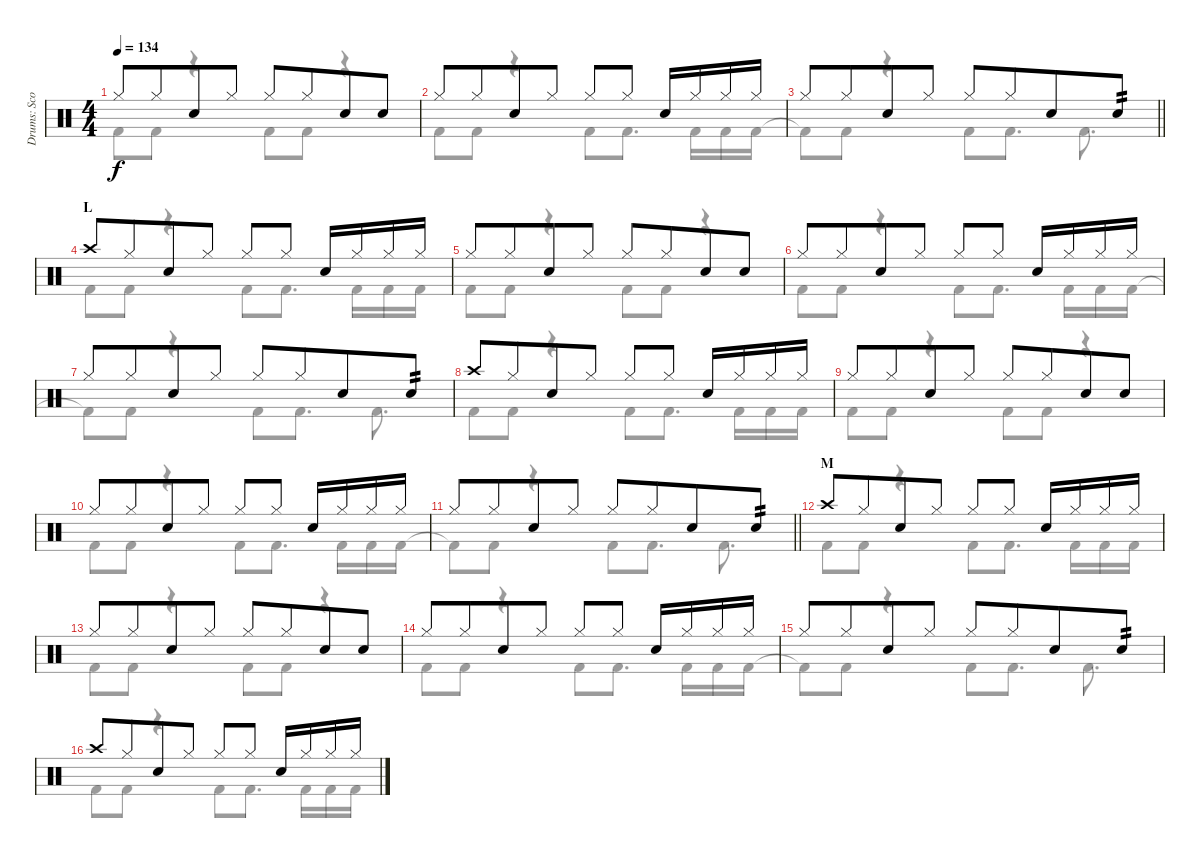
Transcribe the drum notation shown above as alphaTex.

\track ("Drums: Scott" "Drums: Sco") {instrument percussion}
\staff {score}
\articulation defaults
\voice
\ts (4 4)
\tempo 134
\clef neutral
\ks c "Hi-Hat (closed)".8{dy f} "Hi-Hat (closed)".8{beam merge} "Snare (hit) 2".8 "Hi-Hat (closed)".8 "Hi-Hat (closed)".8 "Hi-Hat (closed)".8{beam merge} "Snare (hit) 2".8 "Snare (hit) 2".8
|
"Hi-Hat (closed)".8 "Hi-Hat (closed)".8{beam merge} "Snare (hit) 2".8 "Hi-Hat (closed)".8 "Hi-Hat (closed)".8 "Hi-Hat (closed)".8 "Snare (hit) 2".16 "Hi-Hat (closed)".16 "Hi-Hat (closed)".16 "Hi-Hat (closed)".16 |
\barLineRight lightlight "Hi-Hat (closed)".8 "Hi-Hat (closed)".8{beam merge} "Snare (hit) 2".8 "Hi-Hat (closed)".8 "Hi-Hat (closed)".8 "Hi-Hat (closed)".8{beam merge} "Snare (hit) 2".8 "Snare (hit) 2".8{tp 2}
|
\section ("" "L")
"Crash high (hit)".8 "Hi-Hat (closed)".8{beam merge} "Snare (hit) 2".8 "Hi-Hat (closed)".8 "Hi-Hat (closed)".8 "Hi-Hat (closed)".8 "Snare (hit) 2".16 "Hi-Hat (closed)".16 "Hi-Hat (closed)".16 "Hi-Hat (closed)".16 |
"Hi-Hat (closed)".8 "Hi-Hat (closed)".8{beam merge} "Snare (hit) 2".8 "Hi-Hat (closed)".8 "Hi-Hat (closed)".8 "Hi-Hat (closed)".8{beam merge} "Snare (hit) 2".8 "Snare (hit) 2".8 |
"Hi-Hat (closed)".8 "Hi-Hat (closed)".8{beam merge} "Snare (hit) 2".8 "Hi-Hat (closed)".8 "Hi-Hat (closed)".8 "Hi-Hat (closed)".8 "Snare (hit) 2".16 "Hi-Hat (closed)".16 "Hi-Hat (closed)".16 "Hi-Hat (closed)".16 |
"Hi-Hat (closed)".8 "Hi-Hat (closed)".8{beam merge} "Snare (hit) 2".8 "Hi-Hat (closed)".8 "Hi-Hat (closed)".8 "Hi-Hat (closed)".8{beam merge} "Snare (hit) 2".8 "Snare (hit) 2".8{tp 2} |
"Crash high (hit)".8 "Hi-Hat (closed)".8{beam merge} "Snare (hit) 2".8 "Hi-Hat (closed)".8 "Hi-Hat (closed)".8 "Hi-Hat (closed)".8 "Snare (hit) 2".16 "Hi-Hat (closed)".16 "Hi-Hat (closed)".16 "Hi-Hat (closed)".16 |
"Hi-Hat (closed)".8 "Hi-Hat (closed)".8{beam merge} "Snare (hit) 2".8 "Hi-Hat (closed)".8 "Hi-Hat (closed)".8 "Hi-Hat (closed)".8{beam merge} "Snare (hit) 2".8 "Snare (hit) 2".8 |
"Hi-Hat (closed)".8 "Hi-Hat (closed)".8{beam merge} "Snare (hit) 2".8 "Hi-Hat (closed)".8 "Hi-Hat (closed)".8 "Hi-Hat (closed)".8 "Snare (hit) 2".16 "Hi-Hat (closed)".16 "Hi-Hat (closed)".16 "Hi-Hat (closed)".16 |
\barLineRight lightlight "Hi-Hat (closed)".8 "Hi-Hat (closed)".8{beam merge} "Snare (hit) 2".8 "Hi-Hat (closed)".8 "Hi-Hat (closed)".8 "Hi-Hat (closed)".8{beam merge} "Snare (hit) 2".8 "Snare (hit) 2".8{tp 2}
|
\section ("" "M")
"Crash high (hit)".8 "Hi-Hat (closed)".8{beam merge} "Snare (hit) 2".8 "Hi-Hat (closed)".8 "Hi-Hat (closed)".8 "Hi-Hat (closed)".8 "Snare (hit) 2".16 "Hi-Hat (closed)".16 "Hi-Hat (closed)".16 "Hi-Hat (closed)".16 |
"Hi-Hat (closed)".8 "Hi-Hat (closed)".8{beam merge} "Snare (hit) 2".8 "Hi-Hat (closed)".8 "Hi-Hat (closed)".8 "Hi-Hat (closed)".8{beam merge} "Snare (hit) 2".8 "Snare (hit) 2".8 |
"Hi-Hat (closed)".8 "Hi-Hat (closed)".8{beam merge} "Snare (hit) 2".8 "Hi-Hat (closed)".8 "Hi-Hat (closed)".8 "Hi-Hat (closed)".8 "Snare (hit) 2".16 "Hi-Hat (closed)".16 "Hi-Hat (closed)".16 "Hi-Hat (closed)".16 |
"Hi-Hat (closed)".8 "Hi-Hat (closed)".8{beam merge} "Snare (hit) 2".8 "Hi-Hat (closed)".8 "Hi-Hat (closed)".8 "Hi-Hat (closed)".8{beam merge} "Snare (hit) 2".8 "Snare (hit) 2".8{tp 2} |
"Crash high (hit)".8 "Hi-Hat (closed)".8{beam merge} "Snare (hit) 2".8 "Hi-Hat (closed)".8 "Hi-Hat (closed)".8 "Hi-Hat (closed)".8 "Snare (hit) 2".16 "Hi-Hat (closed)".16 "Hi-Hat (closed)".16 "Hi-Hat (closed)".16
\voice
\clef neutral
\ottava regular
\simile none
\ks c "Kick (hit) 2".8{dy f} "Kick (hit) 2".8
r.4 "Kick (hit) 2".8 "Kick (hit) 2".8 r.4 |
"Kick (hit) 2".8 "Kick (hit) 2".8 r.4 "Kick (hit) 2".8 "Kick (hit) 2".8{d} "Kick (hit) 2".16 "Kick (hit) 2".16 "Kick (hit) 2".16 |
\barLineRight lightlight "Kick (hit) 2"{t}.8 "Kick (hit) 2".8
r.4 "Kick (hit) 2".8 "Kick (hit) 2".8{d} "Kick (hit) 2".8{d} |
"Kick (hit) 2".8 "Kick (hit) 2".8 r.4 "Kick (hit) 2".8 "Kick (hit) 2".8{d} "Kick (hit) 2".16 "Kick (hit) 2".16 "Kick (hit) 2".16 |
"Kick (hit) 2".8 "Kick (hit) 2".8 r.4 "Kick (hit) 2".8 "Kick (hit) 2".8 r.4 |
"Kick (hit) 2".8 "Kick (hit) 2".8 r.4 "Kick (hit) 2".8 "Kick (hit) 2".8{d} "Kick (hit) 2".16 "Kick (hit) 2".16 "Kick (hit) 2".16 |
"Kick (hit) 2"{t}.8 "Kick (hit) 2".8 r.4 "Kick (hit) 2".8 "Kick (hit) 2".8{d} "Kick (hit) 2".8{d} |
"Kick (hit) 2".8 "Kick (hit) 2".8 r.4 "Kick (hit) 2".8 "Kick (hit) 2".8{d} "Kick (hit) 2".16 "Kick (hit) 2".16 "Kick (hit) 2".16 |
"Kick (hit) 2".8 "Kick (hit) 2".8 r.4 "Kick (hit) 2".8 "Kick (hit) 2".8 r.4 |
"Kick (hit) 2".8 "Kick (hit) 2".8 r.4 "Kick (hit) 2".8 "Kick (hit) 2".8{d} "Kick (hit) 2".16 "Kick (hit) 2".16 "Kick (hit) 2".16 |
\barLineRight lightlight "Kick (hit) 2"{t}.8 "Kick (hit) 2".8
r.4 "Kick (hit) 2".8 "Kick (hit) 2".8{d} "Kick (hit) 2".8{d} |
"Kick (hit) 2".8 "Kick (hit) 2".8 r.4 "Kick (hit) 2".8 "Kick (hit) 2".8{d} "Kick (hit) 2".16 "Kick (hit) 2".16 "Kick (hit) 2".16 |
"Kick (hit) 2".8 "Kick (hit) 2".8 r.4 "Kick (hit) 2".8 "Kick (hit) 2".8 r.4 |
"Kick (hit) 2".8 "Kick (hit) 2".8 r.4 "Kick (hit) 2".8 "Kick (hit) 2".8{d} "Kick (hit) 2".16 "Kick (hit) 2".16 "Kick (hit) 2".16 |
"Kick (hit) 2"{t}.8 "Kick (hit) 2".8 r.4 "Kick (hit) 2".8 "Kick (hit) 2".8{d} "Kick (hit) 2".8{d} |
"Kick (hit) 2".8 "Kick (hit) 2".8 r.4 "Kick (hit) 2".8 "Kick (hit) 2".8{d} "Kick (hit) 2".16 "Kick (hit) 2".16 "Kick (hit) 2".16
